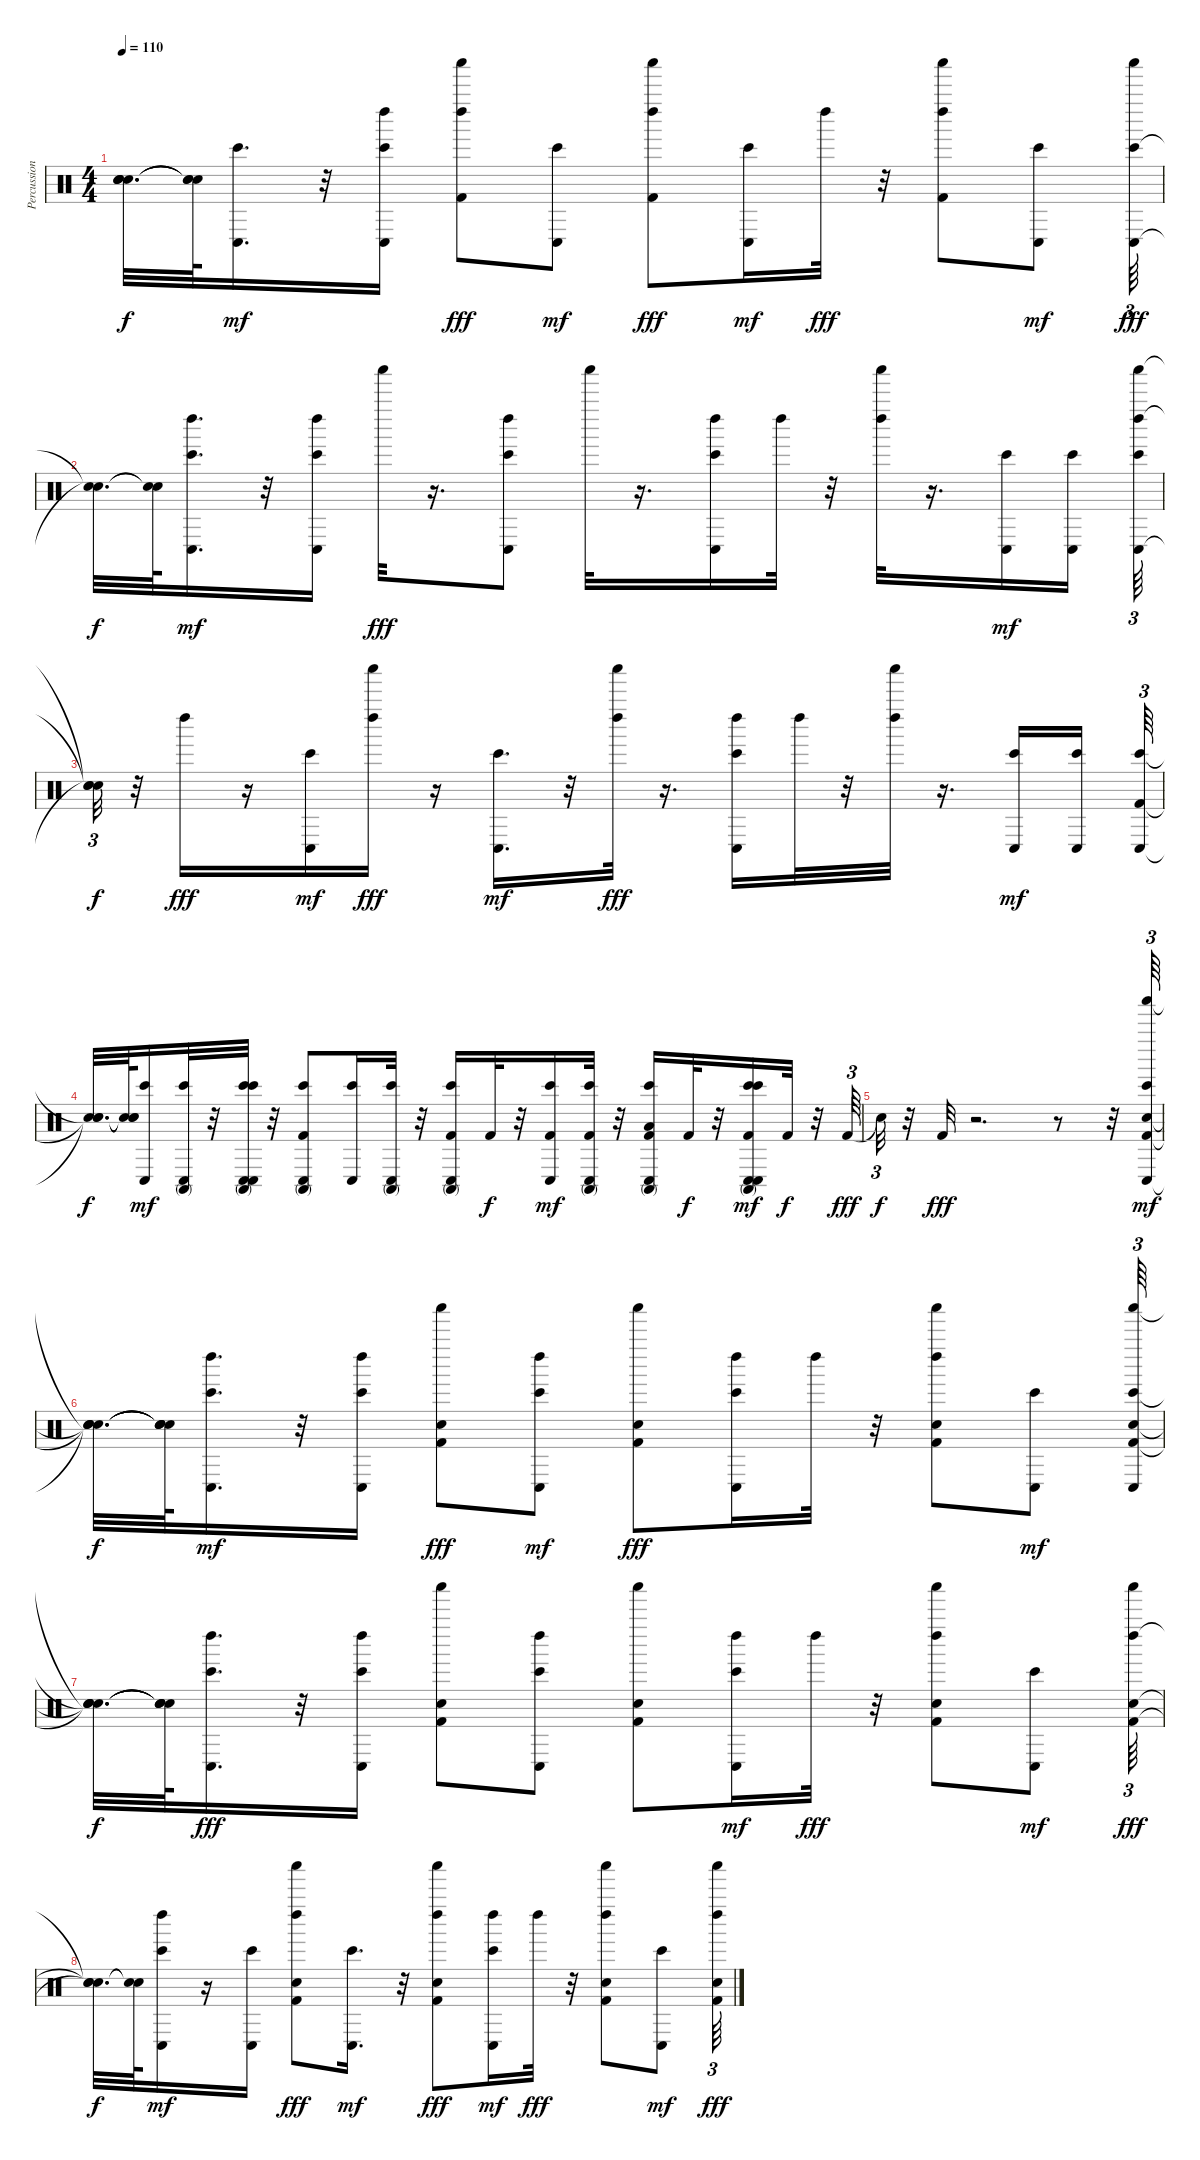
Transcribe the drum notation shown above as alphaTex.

\track ("Percussion" "Percussion") {instrument percussion}
\staff {score}
\articulation defaults
\ts (4 4)
\tempo 110
\clef neutral
\ks c
("Snare (hit)"{t} "Snare (hit)"{t} "Snare (hit)"{t} "Snare (hit)"{t}).32{d dy f} ("Snare (hit)"{t} "Snare (hit)"{t} "Snare (hit)"{t}).64 ("Conga low (hit)" "Bongo High (hit)").16{d dy mf} r.32 ("Left Maraca (hit)" "Bongo High (hit)" "Conga low (hit)").16 ("Kick (hit) 2" "Shaker (hit)" "Left Maraca (hit)").8{dy fff} ("Conga low (hit)" "Bongo High (hit)").8{dy mf} ("Left Maraca (hit)" "Shaker (hit)" "Kick (hit) 2").8{dy fff} ("Bongo High (hit)" "Conga low (hit)").16{dy mf} "Left Maraca (hit)".32{dy fff} r.32 ("Kick (hit) 2" "Left Maraca (hit)" "Shaker (hit)").8 ("Conga low (hit)" "Bongo High (hit)").8{dy mf} ("Bongo High (hit)" "Conga low (hit)" "Shaker (hit)").64{tu (3 2) dy fff} |
("Snare (hit)"{t} "Snare (hit)"{t}).32{d dy f} ("Snare (hit)"{t} "Snare (hit)"{t}).64 ("Left Maraca (hit)" "Conga low (hit)" "Bongo High (hit)").16{d dy mf} r.32 ("Left Maraca (hit)" "Conga low (hit)" "Bongo High (hit)").16 "Shaker (hit)".32{dy fff} r.16{d} ("Bongo High (hit)" "Conga low (hit)" "Left Maraca (hit)").8 "Shaker (hit)".32 r.16{d} ("Conga low (hit)" "Bongo High (hit)" "Left Maraca (hit)").16 "Left Maraca (hit)".32 r.32 ("Left Maraca (hit)" "Shaker (hit)").32 r.16{d} ("Conga low (hit)" "Bongo High (hit)").16{dy mf} ("Conga low (hit)" "Bongo High (hit)").16 ("Left Maraca (hit)" "Shaker (hit)" "Conga low (hit)" "Bongo High (hit)").64{tu (3 2)} |
("Snare (hit)"{t} "Snare (hit)"{t} "Snare (hit)"{t}).32{tu (3 2) dy f} r.32 "Left Maraca (hit)".16{dy fff} r.16 ("Conga low (hit)" "Bongo High (hit)").16{dy mf} ("Left Maraca (hit)" "Shaker (hit)").16{dy fff} r.16 ("Bongo High (hit)" "Conga low (hit)").16{d dy mf} r.32 ("Shaker (hit)" "Left Maraca (hit)").32{dy fff} r.16{d} ("Conga low (hit)" "Bongo High (hit)" "Left Maraca (hit)").16 "Left Maraca (hit)".32 r.32 ("Shaker (hit)" "Left Maraca (hit)").32 r.16{d} ("Bongo High (hit)" "Conga low (hit)").16{dy mf} ("Bongo High (hit)" "Conga low (hit)").16{beam splitsecondary} ("Conga low (hit)" "Kick (hit) 2" "Bongo High (hit)").64{tu (3 2)} |
("Snare (hit)"{t} "Snare (hit)"{t} "Snare (hit)"{t}).32{d dy f} ("Snare (hit)"{t} "Snare (hit)"{t} "Snare (hit)"{t}).64 ("Bongo High (hit)" "Conga low (hit)").16{dy mf} ("Bongo High (hit)" "Conga low (hit)" "Conga high (mute)").32 r.32 ("Bongo High (hit)" "Conga low (hit)" "Conga low (hit)" "Bongo High (hit)" "Conga high (mute)").32 r.32 ("Conga high (mute)" "Kick (hit) 2" "Conga low (hit)" "Bongo High (hit)").8 ("Bongo High (hit)" "Conga low (hit)").16 ("Bongo High (hit)" "Conga low (hit)" "Conga high (mute)").32 r.32 ("Bongo High (hit)" "Conga high (mute)" "Conga low (hit)" "Kick (hit) 2").16 "Kick (hit) 2".32{dy f} r.32 ("Conga low (hit)" "Kick (hit) 2" "Bongo High (hit)").16{dy mf} ("Kick (hit) 2" "Bongo High (hit)" "Conga high (mute)" "Conga low (hit)").32 r.32 ("Low Tom (hit)" "Kick (hit) 2" "Conga high (mute)" "Bongo High (hit)" "Conga low (hit)").16 "Kick (hit) 2".32{dy f} r.32 ("Conga low (hit)" "Kick (hit) 2" "Conga high (mute)" "Bongo High (hit)" "Bongo High (hit)" "Conga low (hit)").16{dy mf} "Kick (hit) 2".32{dy f} r.32 "Kick (hit) 2".64{tu (3 2) dy fff} |
"Snare (hit)"{t}.32{tu (3 2) dy f} r.32 "Kick (hit) 2".32{dy fff} r.2{d} r.8 r.32 ("Hand Clap (hit)" "Kick (hit) 2" "Conga low (hit)" "Shaker (hit)" "Bongo High (hit)").64{tu (3 2) dy mf} |
("Snare (hit)"{t} "Snare (hit)"{t} "Snare (hit)"{t} "Snare (hit)"{t}).32{d dy f} ("Snare (hit)"{t} "Snare (hit)"{t} "Snare (hit)"{t} "Snare (hit)"{t}).64 ("Bongo High (hit)" "Left Maraca (hit)" "Conga low (hit)").16{d dy mf} r.32 ("Conga low (hit)" "Left Maraca (hit)" "Bongo High (hit)").16 ("Kick (hit) 2" "Hand Clap (hit)" "Shaker (hit)").8{dy fff} ("Conga low (hit)" "Left Maraca (hit)" "Bongo High (hit)").8{dy mf} ("Hand Clap (hit)" "Shaker (hit)" "Kick (hit) 2").8{dy fff} ("Conga low (hit)" "Bongo High (hit)" "Left Maraca (hit)").16 "Left Maraca (hit)".32 r.32 ("Shaker (hit)" "Kick (hit) 2" "Left Maraca (hit)" "Hand Clap (hit)").8 ("Conga low (hit)" "Bongo High (hit)").8{dy mf} ("Bongo High (hit)" "Hand Clap (hit)" "Kick (hit) 2" "Shaker (hit)" "Conga low (hit)").64{tu (3 2)} |
("Snare (hit)"{t} "Snare (hit)"{t} "Snare (hit)"{t} "Snare (hit)"{t}).32{d dy f} ("Snare (hit)"{t} "Snare (hit)"{t} "Snare (hit)"{t} "Snare (hit)"{t}).64 ("Conga low (hit)" "Bongo High (hit)" "Left Maraca (hit)").16{d dy fff} r.32 ("Bongo High (hit)" "Conga low (hit)" "Left Maraca (hit)").16 ("Kick (hit) 2" "Hand Clap (hit)" "Shaker (hit)").8 ("Bongo High (hit)" "Conga low (hit)" "Left Maraca (hit)").8 ("Shaker (hit)" "Kick (hit) 2" "Hand Clap (hit)").8 ("Left Maraca (hit)" "Bongo High (hit)" "Conga low (hit)").16{dy mf} "Left Maraca (hit)".32{dy fff} r.32 ("Kick (hit) 2" "Hand Clap (hit)" "Shaker (hit)" "Left Maraca (hit)").8 ("Conga low (hit)" "Bongo High (hit)").8{dy mf} ("Hand Clap (hit)" "Left Maraca (hit)" "Kick (hit) 2" "Shaker (hit)").64{tu (3 2) dy fff} |
("Snare (hit)"{t} "Snare (hit)"{t} "Snare (hit)"{t}).32{d dy f} ("Snare (hit)"{t} "Snare (hit)"{t}).64 ("Conga low (hit)" "Left Maraca (hit)" "Bongo High (hit)").16{dy mf} r.16 ("Conga low (hit)" "Bongo High (hit)").16 ("Kick (hit) 2" "Shaker (hit)" "Left Maraca (hit)" "Hand Clap (hit)").8{dy fff} ("Conga low (hit)" "Bongo High (hit)").16{d dy mf} r.32 ("Shaker (hit)" "Hand Clap (hit)" "Kick (hit) 2" "Left Maraca (hit)").8{dy fff} ("Left Maraca (hit)" "Conga low (hit)" "Bongo High (hit)").16{dy mf} "Left Maraca (hit)".32{dy fff} r.32 ("Hand Clap (hit)" "Shaker (hit)" "Kick (hit) 2" "Left Maraca (hit)").8 ("Bongo High (hit)" "Conga low (hit)").8{dy mf} ("Shaker (hit)" "Kick (hit) 2" "Hand Clap (hit)" "Left Maraca (hit)").64{tu (3 2) dy fff}
